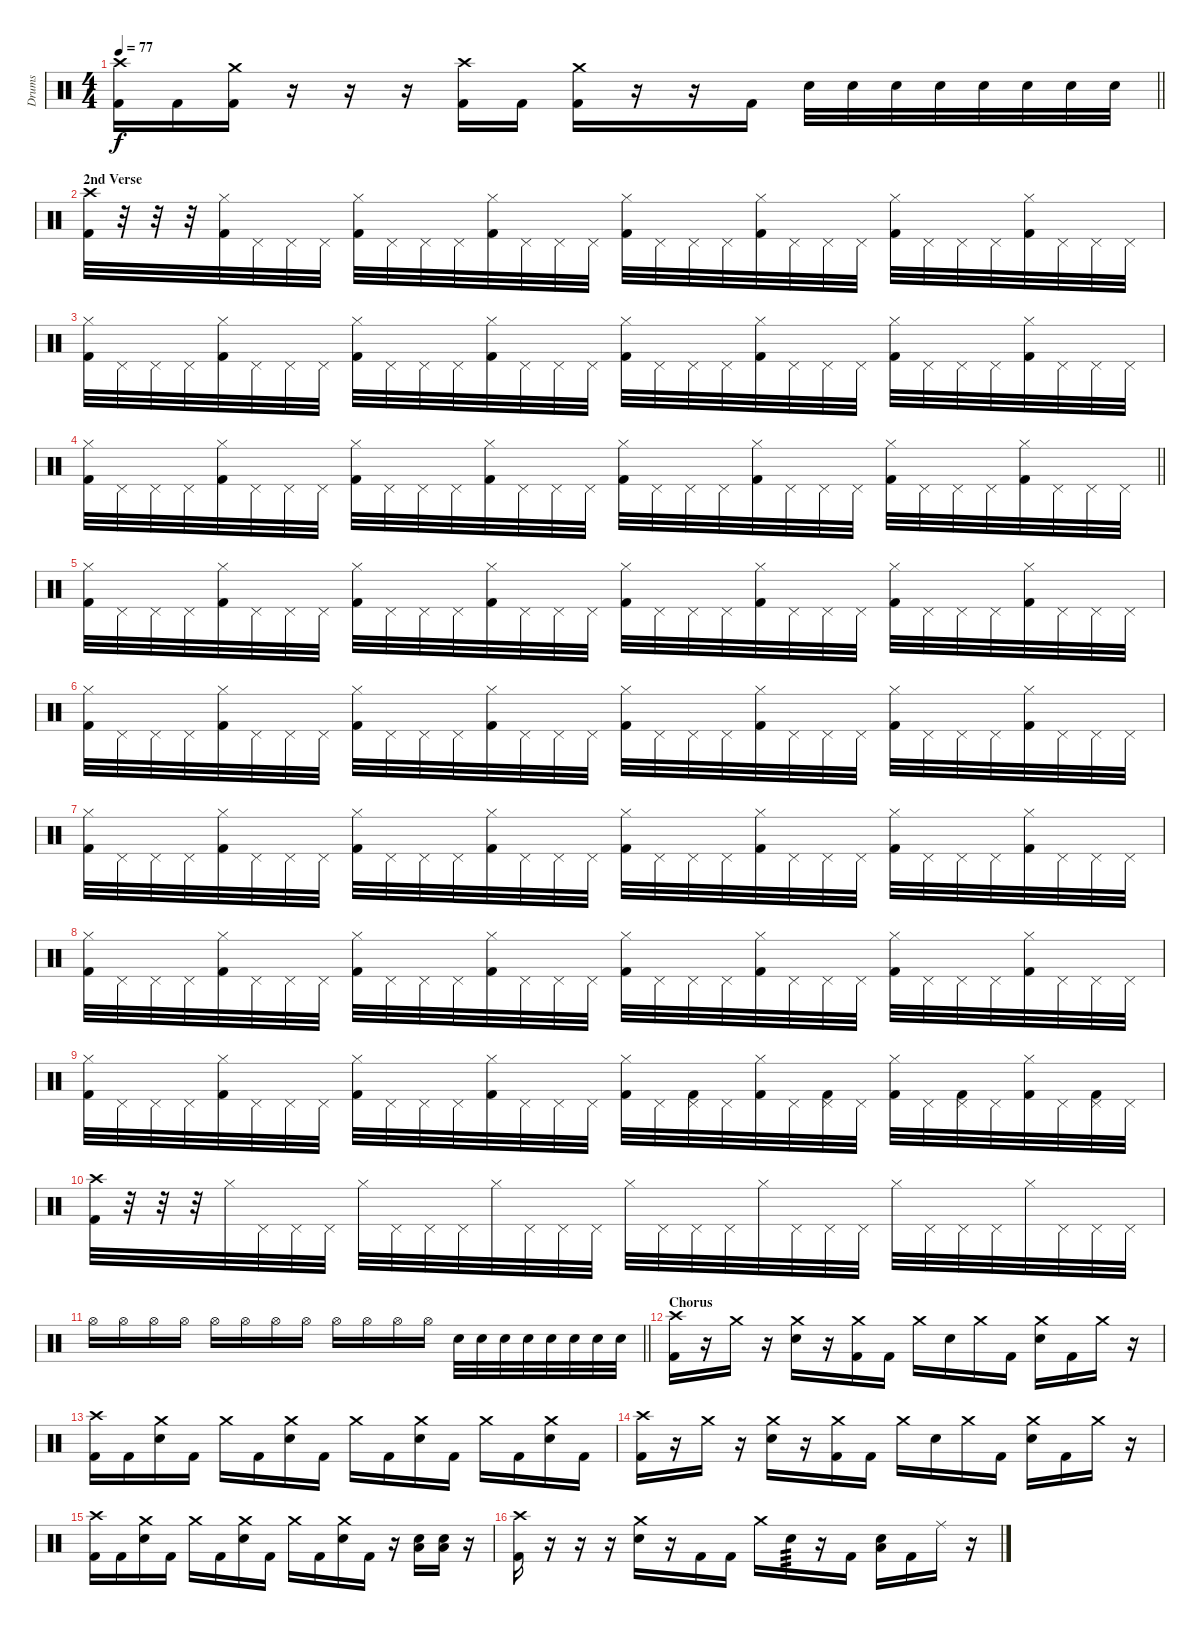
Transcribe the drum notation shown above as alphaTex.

\track ("Drums" "Drums") {instrument percussion}
\staff {score}
\articulation defaults
\ts (4 4)
\tempo 77
\clef neutral
\barLineRight lightlight
\ks c
("Crash high (hit)" "Kick (hit) 2").16{dy f} "Kick (hit) 2".16 ("Crash medium (hit)" "Kick (hit) 2").16 r.16 r.16 r.16 ("Crash high (hit)" "Kick (hit) 2").16 "Kick (hit) 2".16 ("Crash medium (hit)" "Kick (hit) 2").16 r.16 r.16 "Kick (hit) 2".16 "Snare (hit) 2".32 "Snare (hit) 2".32 "Snare (hit) 2".32 "Snare (hit) 2".32 "Snare (hit) 2".32 "Snare (hit) 2".32 "Snare (hit) 2".32 "Snare (hit) 2".32 |
\section ("" "2nd Verse")
("Crash high (hit)" "Kick (hit) 2").32 r.32 r.32 r.32 ("Hi-Hat (closed)" "Kick (hit) 2").32 "Pedal Hi-Hat (hit)".32 "Pedal Hi-Hat (hit)".32 "Pedal Hi-Hat (hit)".32 ("Hi-Hat (closed)" "Kick (hit) 2").32 "Pedal Hi-Hat (hit)".32 "Pedal Hi-Hat (hit)".32 "Pedal Hi-Hat (hit)".32 ("Hi-Hat (closed)" "Kick (hit) 2").32 "Pedal Hi-Hat (hit)".32 "Pedal Hi-Hat (hit)".32 "Pedal Hi-Hat (hit)".32 ("Hi-Hat (closed)" "Kick (hit) 2").32 "Pedal Hi-Hat (hit)".32 "Pedal Hi-Hat (hit)".32 "Pedal Hi-Hat (hit)".32 ("Hi-Hat (closed)" "Kick (hit) 2").32 "Pedal Hi-Hat (hit)".32 "Pedal Hi-Hat (hit)".32 "Pedal Hi-Hat (hit)".32 ("Hi-Hat (closed)" "Kick (hit) 2").32 "Pedal Hi-Hat (hit)".32 "Pedal Hi-Hat (hit)".32 "Pedal Hi-Hat (hit)".32 ("Hi-Hat (closed)" "Kick (hit) 2").32 "Pedal Hi-Hat (hit)".32 "Pedal Hi-Hat (hit)".32 "Pedal Hi-Hat (hit)".32 |
("Hi-Hat (closed)" "Kick (hit) 2").32 "Pedal Hi-Hat (hit)".32 "Pedal Hi-Hat (hit)".32 "Pedal Hi-Hat (hit)".32 ("Hi-Hat (closed)" "Kick (hit) 2").32 "Pedal Hi-Hat (hit)".32 "Pedal Hi-Hat (hit)".32 "Pedal Hi-Hat (hit)".32 ("Hi-Hat (closed)" "Kick (hit) 2").32 "Pedal Hi-Hat (hit)".32 "Pedal Hi-Hat (hit)".32 "Pedal Hi-Hat (hit)".32 ("Hi-Hat (closed)" "Kick (hit) 2").32 "Pedal Hi-Hat (hit)".32 "Pedal Hi-Hat (hit)".32 "Pedal Hi-Hat (hit)".32 ("Hi-Hat (closed)" "Kick (hit) 2").32 "Pedal Hi-Hat (hit)".32 "Pedal Hi-Hat (hit)".32 "Pedal Hi-Hat (hit)".32 ("Hi-Hat (closed)" "Kick (hit) 2").32 "Pedal Hi-Hat (hit)".32 "Pedal Hi-Hat (hit)".32 "Pedal Hi-Hat (hit)".32 ("Hi-Hat (closed)" "Kick (hit) 2").32 "Pedal Hi-Hat (hit)".32 "Pedal Hi-Hat (hit)".32 "Pedal Hi-Hat (hit)".32 ("Hi-Hat (closed)" "Kick (hit) 2").32 "Pedal Hi-Hat (hit)".32 "Pedal Hi-Hat (hit)".32 "Pedal Hi-Hat (hit)".32 |
\barLineRight lightlight
("Hi-Hat (closed)" "Kick (hit) 2").32 "Pedal Hi-Hat (hit)".32 "Pedal Hi-Hat (hit)".32 "Pedal Hi-Hat (hit)".32 ("Hi-Hat (closed)" "Kick (hit) 2").32 "Pedal Hi-Hat (hit)".32 "Pedal Hi-Hat (hit)".32 "Pedal Hi-Hat (hit)".32 ("Hi-Hat (closed)" "Kick (hit) 2").32 "Pedal Hi-Hat (hit)".32 "Pedal Hi-Hat (hit)".32 "Pedal Hi-Hat (hit)".32 ("Hi-Hat (closed)" "Kick (hit) 2").32 "Pedal Hi-Hat (hit)".32 "Pedal Hi-Hat (hit)".32 "Pedal Hi-Hat (hit)".32 ("Hi-Hat (closed)" "Kick (hit) 2").32 "Pedal Hi-Hat (hit)".32 "Pedal Hi-Hat (hit)".32 "Pedal Hi-Hat (hit)".32 ("Hi-Hat (closed)" "Kick (hit) 2").32 "Pedal Hi-Hat (hit)".32 "Pedal Hi-Hat (hit)".32 "Pedal Hi-Hat (hit)".32 ("Hi-Hat (closed)" "Kick (hit) 2").32 "Pedal Hi-Hat (hit)".32 "Pedal Hi-Hat (hit)".32 "Pedal Hi-Hat (hit)".32 ("Hi-Hat (closed)" "Kick (hit) 2").32 "Pedal Hi-Hat (hit)".32 "Pedal Hi-Hat (hit)".32 "Pedal Hi-Hat (hit)".32 |
("Hi-Hat (closed)" "Kick (hit) 2").32 "Pedal Hi-Hat (hit)".32 "Pedal Hi-Hat (hit)".32 "Pedal Hi-Hat (hit)".32 ("Hi-Hat (closed)" "Kick (hit) 2").32 "Pedal Hi-Hat (hit)".32 "Pedal Hi-Hat (hit)".32 "Pedal Hi-Hat (hit)".32 ("Hi-Hat (closed)" "Kick (hit) 2").32 "Pedal Hi-Hat (hit)".32 "Pedal Hi-Hat (hit)".32 "Pedal Hi-Hat (hit)".32 ("Hi-Hat (closed)" "Kick (hit) 2").32 "Pedal Hi-Hat (hit)".32 "Pedal Hi-Hat (hit)".32 "Pedal Hi-Hat (hit)".32 ("Hi-Hat (closed)" "Kick (hit) 2").32 "Pedal Hi-Hat (hit)".32 "Pedal Hi-Hat (hit)".32 "Pedal Hi-Hat (hit)".32 ("Hi-Hat (closed)" "Kick (hit) 2").32 "Pedal Hi-Hat (hit)".32 "Pedal Hi-Hat (hit)".32 "Pedal Hi-Hat (hit)".32 ("Hi-Hat (closed)" "Kick (hit) 2").32 "Pedal Hi-Hat (hit)".32 "Pedal Hi-Hat (hit)".32 "Pedal Hi-Hat (hit)".32 ("Hi-Hat (closed)" "Kick (hit) 2").32 "Pedal Hi-Hat (hit)".32 "Pedal Hi-Hat (hit)".32 "Pedal Hi-Hat (hit)".32 |
("Hi-Hat (closed)" "Kick (hit) 2").32 "Pedal Hi-Hat (hit)".32 "Pedal Hi-Hat (hit)".32 "Pedal Hi-Hat (hit)".32 ("Hi-Hat (closed)" "Kick (hit) 2").32 "Pedal Hi-Hat (hit)".32 "Pedal Hi-Hat (hit)".32 "Pedal Hi-Hat (hit)".32 ("Hi-Hat (closed)" "Kick (hit) 2").32 "Pedal Hi-Hat (hit)".32 "Pedal Hi-Hat (hit)".32 "Pedal Hi-Hat (hit)".32 ("Hi-Hat (closed)" "Kick (hit) 2").32 "Pedal Hi-Hat (hit)".32 "Pedal Hi-Hat (hit)".32 "Pedal Hi-Hat (hit)".32 ("Hi-Hat (closed)" "Kick (hit) 2").32 "Pedal Hi-Hat (hit)".32 "Pedal Hi-Hat (hit)".32 "Pedal Hi-Hat (hit)".32 ("Hi-Hat (closed)" "Kick (hit) 2").32 "Pedal Hi-Hat (hit)".32 "Pedal Hi-Hat (hit)".32 "Pedal Hi-Hat (hit)".32 ("Hi-Hat (closed)" "Kick (hit) 2").32 "Pedal Hi-Hat (hit)".32 "Pedal Hi-Hat (hit)".32 "Pedal Hi-Hat (hit)".32 ("Hi-Hat (closed)" "Kick (hit) 2").32 "Pedal Hi-Hat (hit)".32 "Pedal Hi-Hat (hit)".32 "Pedal Hi-Hat (hit)".32 |
("Hi-Hat (closed)" "Kick (hit) 2").32 "Pedal Hi-Hat (hit)".32 "Pedal Hi-Hat (hit)".32 "Pedal Hi-Hat (hit)".32 ("Hi-Hat (closed)" "Kick (hit) 2").32 "Pedal Hi-Hat (hit)".32 "Pedal Hi-Hat (hit)".32 "Pedal Hi-Hat (hit)".32 ("Hi-Hat (closed)" "Kick (hit) 2").32 "Pedal Hi-Hat (hit)".32 "Pedal Hi-Hat (hit)".32 "Pedal Hi-Hat (hit)".32 ("Hi-Hat (closed)" "Kick (hit) 2").32 "Pedal Hi-Hat (hit)".32 "Pedal Hi-Hat (hit)".32 "Pedal Hi-Hat (hit)".32 ("Hi-Hat (closed)" "Kick (hit) 2").32 "Pedal Hi-Hat (hit)".32 "Pedal Hi-Hat (hit)".32 "Pedal Hi-Hat (hit)".32 ("Hi-Hat (closed)" "Kick (hit) 2").32 "Pedal Hi-Hat (hit)".32 "Pedal Hi-Hat (hit)".32 "Pedal Hi-Hat (hit)".32 ("Hi-Hat (closed)" "Kick (hit) 2").32 "Pedal Hi-Hat (hit)".32 "Pedal Hi-Hat (hit)".32 "Pedal Hi-Hat (hit)".32 ("Hi-Hat (closed)" "Kick (hit) 2").32 "Pedal Hi-Hat (hit)".32 "Pedal Hi-Hat (hit)".32 "Pedal Hi-Hat (hit)".32 |
("Hi-Hat (closed)" "Kick (hit) 2").32 "Pedal Hi-Hat (hit)".32 "Pedal Hi-Hat (hit)".32 "Pedal Hi-Hat (hit)".32 ("Hi-Hat (closed)" "Kick (hit) 2").32 "Pedal Hi-Hat (hit)".32 "Pedal Hi-Hat (hit)".32 "Pedal Hi-Hat (hit)".32 ("Hi-Hat (closed)" "Kick (hit) 2").32 "Pedal Hi-Hat (hit)".32 "Pedal Hi-Hat (hit)".32 "Pedal Hi-Hat (hit)".32 ("Hi-Hat (closed)" "Kick (hit) 2").32 "Pedal Hi-Hat (hit)".32 "Pedal Hi-Hat (hit)".32 "Pedal Hi-Hat (hit)".32 ("Hi-Hat (closed)" "Kick (hit) 2").32 "Pedal Hi-Hat (hit)".32 "Pedal Hi-Hat (hit)".32 "Pedal Hi-Hat (hit)".32 ("Hi-Hat (closed)" "Kick (hit) 2").32 "Pedal Hi-Hat (hit)".32 "Pedal Hi-Hat (hit)".32 "Pedal Hi-Hat (hit)".32 ("Hi-Hat (closed)" "Kick (hit) 2").32 "Pedal Hi-Hat (hit)".32 "Pedal Hi-Hat (hit)".32 "Pedal Hi-Hat (hit)".32 ("Hi-Hat (closed)" "Kick (hit) 2").32 "Pedal Hi-Hat (hit)".32 "Pedal Hi-Hat (hit)".32 "Pedal Hi-Hat (hit)".32 |
("Hi-Hat (closed)" "Kick (hit) 2").32 "Pedal Hi-Hat (hit)".32 "Pedal Hi-Hat (hit)".32 "Pedal Hi-Hat (hit)".32 ("Hi-Hat (closed)" "Kick (hit) 2").32 "Pedal Hi-Hat (hit)".32 "Pedal Hi-Hat (hit)".32 "Pedal Hi-Hat (hit)".32 ("Hi-Hat (closed)" "Kick (hit) 2").32 "Pedal Hi-Hat (hit)".32 "Pedal Hi-Hat (hit)".32 "Pedal Hi-Hat (hit)".32 ("Hi-Hat (closed)" "Kick (hit) 2").32 "Pedal Hi-Hat (hit)".32 "Pedal Hi-Hat (hit)".32 "Pedal Hi-Hat (hit)".32 ("Hi-Hat (closed)" "Kick (hit) 2").32 "Pedal Hi-Hat (hit)".32 ("Pedal Hi-Hat (hit)" "Kick (hit) 2").32 "Pedal Hi-Hat (hit)".32 ("Hi-Hat (closed)" "Kick (hit) 2").32 "Pedal Hi-Hat (hit)".32 ("Pedal Hi-Hat (hit)" "Kick (hit) 2").32 "Pedal Hi-Hat (hit)".32 ("Hi-Hat (closed)" "Kick (hit) 2").32 "Pedal Hi-Hat (hit)".32 ("Pedal Hi-Hat (hit)" "Kick (hit) 2").32 "Pedal Hi-Hat (hit)".32 ("Hi-Hat (closed)" "Kick (hit) 2").32 "Pedal Hi-Hat (hit)".32 ("Pedal Hi-Hat (hit)" "Kick (hit) 2").32 "Pedal Hi-Hat (hit)".32 |
("Crash high (hit)" "Kick (hit) 2").32 r.32 r.32 r.32 "Hi-Hat (closed)".32 "Pedal Hi-Hat (hit)".32 "Pedal Hi-Hat (hit)".32 "Pedal Hi-Hat (hit)".32 "Hi-Hat (closed)".32 "Pedal Hi-Hat (hit)".32 "Pedal Hi-Hat (hit)".32 "Pedal Hi-Hat (hit)".32 "Hi-Hat (closed)".32 "Pedal Hi-Hat (hit)".32 "Pedal Hi-Hat (hit)".32 "Pedal Hi-Hat (hit)".32 "Hi-Hat (closed)".32 "Pedal Hi-Hat (hit)".32 "Pedal Hi-Hat (hit)".32 "Pedal Hi-Hat (hit)".32 "Hi-Hat (closed)".32 "Pedal Hi-Hat (hit)".32 "Pedal Hi-Hat (hit)".32 "Pedal Hi-Hat (hit)".32 "Hi-Hat (closed)".32 "Pedal Hi-Hat (hit)".32 "Pedal Hi-Hat (hit)".32 "Pedal Hi-Hat (hit)".32 "Hi-Hat (closed)".32 "Pedal Hi-Hat (hit)".32 "Pedal Hi-Hat (hit)".32 "Pedal Hi-Hat (hit)".32 |
\barLineRight lightlight "Hi-Hat (open)".16 "Hi-Hat (open)".16 "Hi-Hat (open)".16 "Hi-Hat (open)".16 "Hi-Hat (open)".16 "Hi-Hat (open)".16 "Hi-Hat (open)".16 "Hi-Hat (open)".16 "Hi-Hat (open)".16 "Hi-Hat (open)".16 "Hi-Hat (open)".16 "Hi-Hat (open)".16 "Snare (hit) 2".32 "Snare (hit) 2".32 "Snare (hit) 2".32 "Snare (hit) 2".32 "Snare (hit) 2".32 "Snare (hit) 2".32 "Snare (hit) 2".32 "Snare (hit) 2".32
|
\section ("" "Chorus")
("Crash high (hit)" "Kick (hit) 2").16 r.16 "Crash medium (hit)".16 r.16 ("Crash medium (hit)" "Snare (hit) 2").16 r.16 ("Crash medium (hit)" "Kick (hit) 2").16 "Kick (hit) 2".16 "Crash medium (hit)".16 "Snare (hit) 2".16 "Crash medium (hit)".16 "Kick (hit) 2".16 ("Crash medium (hit)" "Snare (hit) 2").16 "Kick (hit) 2".16 "Crash medium (hit)".16 r.16 |
("Crash high (hit)" "Kick (hit) 2").16 "Kick (hit) 2".16 ("Crash medium (hit)" "Snare (hit) 2").16 "Kick (hit) 2".16 "Crash medium (hit)".16 "Kick (hit) 2".16 ("Crash medium (hit)" "Snare (hit) 2").16 "Kick (hit) 2".16 "Crash medium (hit)".16 "Kick (hit) 2".16 ("Crash medium (hit)" "Snare (hit) 2").16 "Kick (hit) 2".16 "Crash medium (hit)".16 "Kick (hit) 2".16 ("Crash medium (hit)" "Snare (hit) 2").16 "Kick (hit) 2".16 |
("Crash high (hit)" "Kick (hit) 2").16 r.16 "Crash medium (hit)".16 r.16 ("Crash medium (hit)" "Snare (hit) 2").16 r.16 ("Crash medium (hit)" "Kick (hit) 2").16 "Kick (hit) 2".16 "Crash medium (hit)".16 "Snare (hit) 2".16 "Crash medium (hit)".16 "Kick (hit) 2".16 ("Crash medium (hit)" "Snare (hit) 2").16 "Kick (hit) 2".16 "Crash medium (hit)".16 r.16 |
("Crash high (hit)" "Kick (hit) 2").16 "Kick (hit) 2".16 ("Crash medium (hit)" "Snare (hit) 2").16 "Kick (hit) 2".16 "Crash medium (hit)".16 "Kick (hit) 2".16 ("Crash medium (hit)" "Snare (hit) 2").16 "Kick (hit) 2".16 "Crash medium (hit)".16 "Kick (hit) 2".16 ("Crash medium (hit)" "Snare (hit) 2").16 "Kick (hit) 2".16 r.16 ("Low Tom (hit)" "Snare (hit) 2").16 ("Low Tom (hit)" "Snare (hit) 2").16 r.16 |
("Crash high (hit)" "Kick (hit) 2").16 r.16 r.16 r.16 ("Crash medium (hit)" "Snare (hit) 2").16 r.16 "Kick (hit) 2".16 "Kick (hit) 2".16 "Crash medium (hit)".16 "Snare (hit) 2".16{tp 3} r.16 "Kick (hit) 2".16 ("Low Floor Tom (hit)" "Snare (hit) 2").16 "Kick (hit) 2".16 "Ride (middle)".16 r.16
